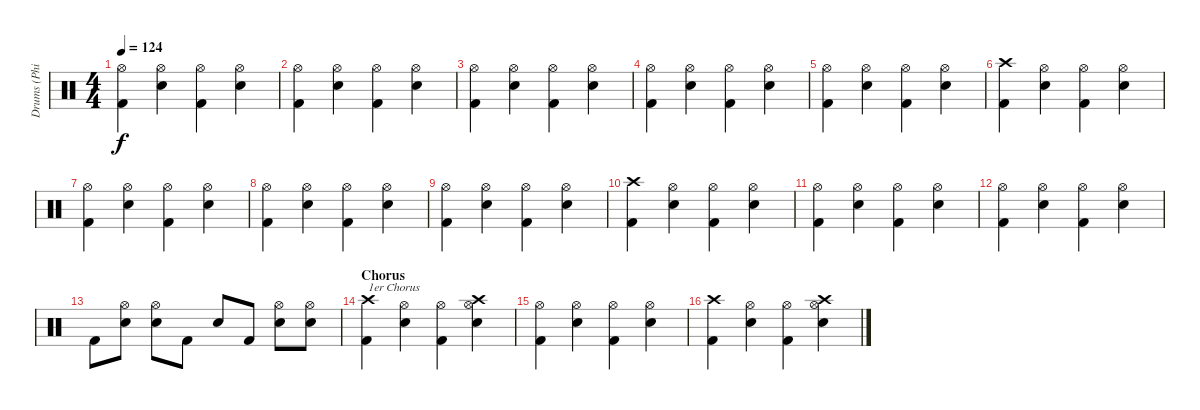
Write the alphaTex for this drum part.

\track ("Drums (Phil R.)" "Drums (Phi") {instrument percussion}
\staff {score}
\articulation defaults
\ts (4 4)
\tempo 124
\clef neutral
\ks c
("Hi-Hat (open)" "Kick (hit) 2").4{dy f} ("Snare (hit) 2" "Hi-Hat (open)").4 ("Hi-Hat (open)" "Kick (hit) 2").4 ("Snare (hit) 2" "Hi-Hat (open)").4 |
("Hi-Hat (open)" "Kick (hit) 2").4 ("Snare (hit) 2" "Hi-Hat (open)").4 ("Hi-Hat (open)" "Kick (hit) 2").4 ("Snare (hit) 2" "Hi-Hat (open)").4 |
("Hi-Hat (open)" "Kick (hit) 2").4 ("Snare (hit) 2" "Hi-Hat (open)").4 ("Hi-Hat (open)" "Kick (hit) 2").4 ("Snare (hit) 2" "Hi-Hat (open)").4 |
("Hi-Hat (open)" "Kick (hit) 2").4 ("Snare (hit) 2" "Hi-Hat (open)").4 ("Hi-Hat (open)" "Kick (hit) 2").4 ("Snare (hit) 2" "Hi-Hat (open)").4 |
("Hi-Hat (open)" "Kick (hit) 2").4 ("Snare (hit) 2" "Hi-Hat (open)").4 ("Hi-Hat (open)" "Kick (hit) 2").4 ("Snare (hit) 2" "Hi-Hat (open)").4 |
("Crash high (hit)" "Kick (hit) 2").4 ("Snare (hit) 2" "Hi-Hat (open)").4 ("Hi-Hat (open)" "Kick (hit) 2").4 ("Snare (hit) 2" "Hi-Hat (open)").4 |
("Hi-Hat (open)" "Kick (hit) 2").4 ("Snare (hit) 2" "Hi-Hat (open)").4 ("Hi-Hat (open)" "Kick (hit) 2").4 ("Snare (hit) 2" "Hi-Hat (open)").4 |
("Hi-Hat (open)" "Kick (hit) 2").4 ("Snare (hit) 2" "Hi-Hat (open)").4 ("Hi-Hat (open)" "Kick (hit) 2").4 ("Snare (hit) 2" "Hi-Hat (open)").4 |
("Hi-Hat (open)" "Kick (hit) 2").4 ("Snare (hit) 2" "Hi-Hat (open)").4 ("Hi-Hat (open)" "Kick (hit) 2").4 ("Snare (hit) 2" "Hi-Hat (open)").4 |
("Crash high (hit)" "Kick (hit) 2").4 ("Snare (hit) 2" "Hi-Hat (open)").4 ("Hi-Hat (open)" "Kick (hit) 2").4 ("Snare (hit) 2" "Hi-Hat (open)").4 |
("Hi-Hat (open)" "Kick (hit) 2").4 ("Snare (hit) 2" "Hi-Hat (open)").4 ("Hi-Hat (open)" "Kick (hit) 2").4 ("Snare (hit) 2" "Hi-Hat (open)").4 |
("Hi-Hat (open)" "Kick (hit) 2").4 ("Snare (hit) 2" "Hi-Hat (open)").4 ("Hi-Hat (open)" "Kick (hit) 2").4 ("Snare (hit) 2" "Hi-Hat (open)").4 |
"Kick (hit) 2".8 ("Snare (hit) 2" "Hi-Hat (open)").8 ("Snare (hit) 2" "Hi-Hat (open)").8 "Kick (hit) 2".8 "Snare (hit) 2".8 "Kick (hit) 2".8 ("Snare (hit) 2" "Hi-Hat (open)").8 ("Snare (hit) 2" "Hi-Hat (open)").8 |
\section ("" "Chorus")
("Crash high (hit)" "Kick (hit) 2").4{txt "1er Chorus"} ("Snare (hit) 2" "Hi-Hat (open)").4 ("Hi-Hat (open)" "Kick (hit) 2").4 ("Crash high (hit)" "Snare (hit) 2" "Hi-Hat (open)").4 |
("Hi-Hat (open)" "Kick (hit) 2").4 ("Snare (hit) 2" "Hi-Hat (open)").4 ("Hi-Hat (open)" "Kick (hit) 2").4 ("Snare (hit) 2" "Hi-Hat (open)").4 |
("Crash high (hit)" "Kick (hit) 2").4 ("Snare (hit) 2" "Hi-Hat (open)").4 ("Hi-Hat (open)" "Kick (hit) 2").4 ("Crash high (hit)" "Snare (hit) 2" "Hi-Hat (open)").4
